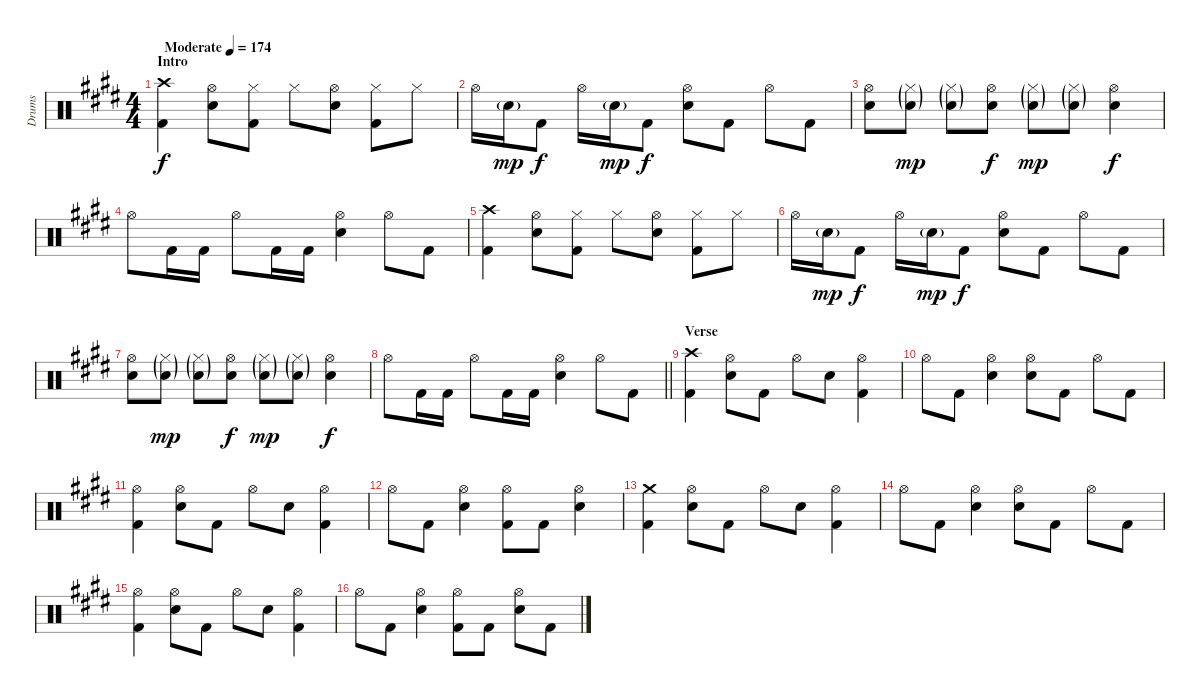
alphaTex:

\track ("Drums" "Drums") {instrument percussion bank 177}
\staff {score}
\articulation defaults
\ts (4 4)
\section ("" "Intro")
\tempo (174 "Moderate")
\clef neutral
\ks e
("Crash high (hit)" "Kick (hit) 2").4{dy f} ("Hi-Hat (open)" "Electric Snare (hit)").8 ("Hi-Hat (closed)" "Kick (hit) 2").8 "Hi-Hat (closed)".8 ("Hi-Hat (open)" "Electric Snare (hit)").8 ("Hi-Hat (closed)" "Kick (hit) 2").8 "Hi-Hat (closed)".8 |
"Hi-Hat (open)".16 "Electric Snare (hit)"{g}.16{dy mp} "Kick (hit) 2".8{dy f} "Hi-Hat (open)".16 "Electric Snare (hit)"{g}.16{dy mp} "Kick (hit) 2".8{dy f} ("Hi-Hat (open)" "Electric Snare (hit)").8 "Kick (hit) 2".8 "Hi-Hat (open)".8 "Kick (hit) 2".8 |
("Hi-Hat (open)" "Electric Snare (hit)").8 ("Hi-Hat (closed)"{g} "Electric Snare (hit)"{g}).8{dy mp} ("Hi-Hat (closed)"{g} "Electric Snare (hit)"{g}).8 ("Hi-Hat (open)" "Electric Snare (hit)").8{dy f} ("Hi-Hat (closed)"{g} "Electric Snare (hit)"{g}).8{dy mp} ("Hi-Hat (closed)"{g} "Electric Snare (hit)"{g}).8 ("Hi-Hat (open)" "Electric Snare (hit)").4{dy f} |
"Hi-Hat (open)".8 "Kick (hit) 2".16 "Kick (hit) 2".16 "Hi-Hat (open)".8 "Kick (hit) 2".16 "Kick (hit) 2".16 ("Hi-Hat (open)" "Electric Snare (hit)").4 "Hi-Hat (open)".8 "Kick (hit) 2".8 |
("Crash high (hit)" "Kick (hit) 2").4 ("Hi-Hat (open)" "Electric Snare (hit)").8 ("Hi-Hat (closed)" "Kick (hit) 2").8 "Hi-Hat (closed)".8 ("Hi-Hat (open)" "Electric Snare (hit)").8 ("Hi-Hat (closed)" "Kick (hit) 2").8 "Hi-Hat (closed)".8 |
"Hi-Hat (open)".16 "Electric Snare (hit)"{g}.16{dy mp} "Kick (hit) 2".8{dy f} "Hi-Hat (open)".16 "Electric Snare (hit)"{g}.16{dy mp} "Kick (hit) 2".8{dy f} ("Hi-Hat (open)" "Electric Snare (hit)").8 "Kick (hit) 2".8 "Hi-Hat (open)".8 "Kick (hit) 2".8 |
("Hi-Hat (open)" "Electric Snare (hit)").8 ("Hi-Hat (closed)"{g} "Electric Snare (hit)"{g}).8{dy mp} ("Hi-Hat (closed)"{g} "Electric Snare (hit)"{g}).8 ("Hi-Hat (open)" "Electric Snare (hit)").8{dy f} ("Hi-Hat (closed)"{g} "Electric Snare (hit)"{g}).8{dy mp} ("Hi-Hat (closed)"{g} "Electric Snare (hit)"{g}).8 ("Hi-Hat (open)" "Electric Snare (hit)").4{dy f} |
\barLineRight lightlight "Hi-Hat (open)".8 "Kick (hit) 2".16 "Kick (hit) 2".16 "Hi-Hat (open)".8 "Kick (hit) 2".16 "Kick (hit) 2".16
("Hi-Hat (open)" "Electric Snare (hit)").4 "Hi-Hat (open)".8 "Kick (hit) 2".8 |
\section ("" "Verse")
("Crash high (hit)" "Kick (hit) 2").4 ("Hi-Hat (open)" "Electric Snare (hit)").8 "Kick (hit) 2".8 "Hi-Hat (open)".8 "Electric Snare (hit)".8 ("Hi-Hat (open)" "Kick (hit) 2").4 |
"Hi-Hat (open)".8 "Kick (hit) 2".8 ("Hi-Hat (open)" "Electric Snare (hit)").4 ("Hi-Hat (open)" "Electric Snare (hit)").8 "Kick (hit) 2".8 "Hi-Hat (open)".8 "Kick (hit) 2".8 |
("Hi-Hat (open)" "Kick (hit) 2").4 ("Hi-Hat (open)" "Electric Snare (hit)").8 "Kick (hit) 2".8 "Hi-Hat (open)".8 "Electric Snare (hit)".8 ("Hi-Hat (open)" "Kick (hit) 2").4 |
"Hi-Hat (open)".8 "Kick (hit) 2".8 ("Hi-Hat (open)" "Electric Snare (hit)").4 ("Hi-Hat (open)" "Kick (hit) 2").8 "Kick (hit) 2".8 ("Hi-Hat (open)" "Electric Snare (hit)").4 |
("Crash medium (hit)" "Kick (hit) 2").4 ("Hi-Hat (open)" "Electric Snare (hit)").8 "Kick (hit) 2".8 "Hi-Hat (open)".8 "Electric Snare (hit)".8 ("Hi-Hat (open)" "Kick (hit) 2").4 |
"Hi-Hat (open)".8 "Kick (hit) 2".8 ("Hi-Hat (open)" "Electric Snare (hit)").4 ("Hi-Hat (open)" "Electric Snare (hit)").8 "Kick (hit) 2".8 "Hi-Hat (open)".8 "Kick (hit) 2".8 |
("Hi-Hat (open)" "Kick (hit) 2").4 ("Hi-Hat (open)" "Electric Snare (hit)").8 "Kick (hit) 2".8 "Hi-Hat (open)".8 "Electric Snare (hit)".8 ("Hi-Hat (open)" "Kick (hit) 2").4 |
"Hi-Hat (open)".8 "Kick (hit) 2".8 ("Hi-Hat (open)" "Electric Snare (hit)").4 ("Hi-Hat (open)" "Kick (hit) 2").8 "Kick (hit) 2".8 ("Hi-Hat (open)" "Electric Snare (hit)").8 "Kick (hit) 2".8
